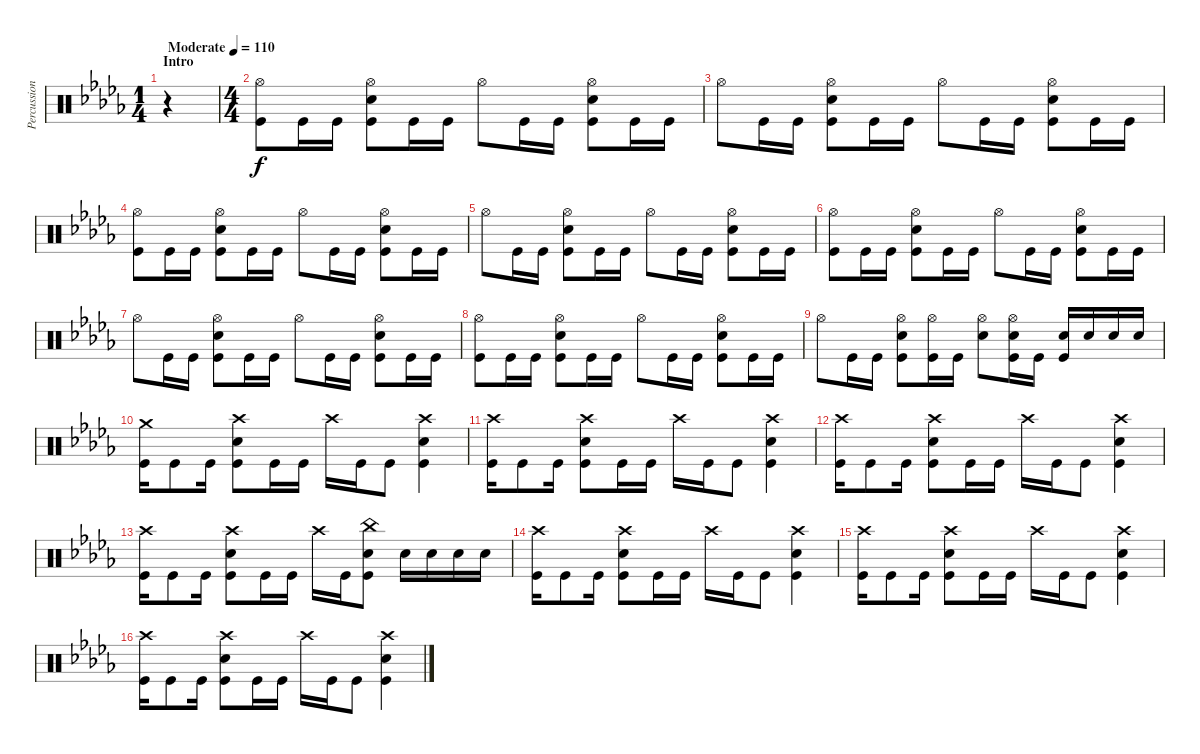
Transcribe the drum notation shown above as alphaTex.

\track ("Percussion" "Percussion") {instrument percussion}
\staff {score}
\articulation defaults
\ts (1 4)
\section ("" "Intro")
\tempo (110 "Moderate")
\clef neutral
\ks db
r.4{dy f volume 0} |
\ts (4 4)
("Hi-Hat (open)" "Kick (hit)").8{volume 7} "Kick (hit)".16 "Kick (hit)".16 ("Hi-Hat (open)" "Electric Snare (hit)" "Kick (hit)").8 "Kick (hit)".16 "Kick (hit)".16 "Hi-Hat (open)".8 "Kick (hit)".16 "Kick (hit)".16 ("Hi-Hat (open)" "Electric Snare (hit)" "Kick (hit)").8 "Kick (hit)".16 "Kick (hit)".16 |
"Hi-Hat (open)".8 "Kick (hit)".16 "Kick (hit)".16 ("Hi-Hat (open)" "Electric Snare (hit)" "Kick (hit)").8 "Kick (hit)".16 "Kick (hit)".16 "Hi-Hat (open)".8 "Kick (hit)".16 "Kick (hit)".16 ("Hi-Hat (open)" "Electric Snare (hit)" "Kick (hit)").8 "Kick (hit)".16 "Kick (hit)".16 |
("Hi-Hat (open)" "Kick (hit)").8 "Kick (hit)".16 "Kick (hit)".16 ("Hi-Hat (open)" "Electric Snare (hit)" "Kick (hit)").8 "Kick (hit)".16 "Kick (hit)".16 "Hi-Hat (open)".8 "Kick (hit)".16 "Kick (hit)".16 ("Hi-Hat (open)" "Electric Snare (hit)" "Kick (hit)").8 "Kick (hit)".16 "Kick (hit)".16 |
"Hi-Hat (open)".8 "Kick (hit)".16 "Kick (hit)".16 ("Hi-Hat (open)" "Electric Snare (hit)" "Kick (hit)").8 "Kick (hit)".16 "Kick (hit)".16 "Hi-Hat (open)".8 "Kick (hit)".16 "Kick (hit)".16 ("Hi-Hat (open)" "Electric Snare (hit)" "Kick (hit)").8 "Kick (hit)".16 "Kick (hit)".16 |
("Hi-Hat (open)" "Kick (hit)").8{volume 13} "Kick (hit)".16 "Kick (hit)".16 ("Hi-Hat (open)" "Electric Snare (hit)" "Kick (hit)").8 "Kick (hit)".16 "Kick (hit)".16 "Hi-Hat (open)".8 "Kick (hit)".16 "Kick (hit)".16 ("Hi-Hat (open)" "Electric Snare (hit)" "Kick (hit)").8 "Kick (hit)".16 "Kick (hit)".16 |
"Hi-Hat (open)".8 "Kick (hit)".16 "Kick (hit)".16 ("Hi-Hat (open)" "Electric Snare (hit)" "Kick (hit)").8 "Kick (hit)".16 "Kick (hit)".16 "Hi-Hat (open)".8 "Kick (hit)".16 "Kick (hit)".16 ("Hi-Hat (open)" "Electric Snare (hit)" "Kick (hit)").8 "Kick (hit)".16 "Kick (hit)".16 |
("Hi-Hat (open)" "Kick (hit)").8 "Kick (hit)".16 "Kick (hit)".16 ("Hi-Hat (open)" "Electric Snare (hit)" "Kick (hit)").8 "Kick (hit)".16 "Kick (hit)".16 "Hi-Hat (open)".8 "Kick (hit)".16 "Kick (hit)".16 ("Hi-Hat (open)" "Electric Snare (hit)" "Kick (hit)").8 "Kick (hit)".16 "Kick (hit)".16 |
"Hi-Hat (open)".8 "Kick (hit)".16 "Kick (hit)".16 ("Hi-Hat (open)" "Electric Snare (hit)" "Kick (hit)").8 ("Hi-Hat (open)" "Kick (hit)").16 "Kick (hit)".16 ("Hi-Hat (open)" "Electric Snare (hit)").8 ("Hi-Hat (open)" "Electric Snare (hit)" "Kick (hit)").16 "Kick (hit)".16 ("Electric Snare (hit)" "Kick (hit)").16 "Electric Snare (hit)".16 "Electric Snare (hit)".16 "Electric Snare (hit)".16 |
("Crash medium (hit)" "Kick (hit)").16 "Kick (hit)".8 "Kick (hit)".16 ("Crash high (hit)" "Electric Snare (hit)" "Kick (hit)").8 "Kick (hit)".16 "Kick (hit)".16 "Crash high (hit)".16 "Kick (hit)".16 "Kick (hit)".8 ("Crash high (hit)" "Electric Snare (hit)" "Kick (hit)").4 |
("Crash high (hit)" "Kick (hit)").16 "Kick (hit)".8 "Kick (hit)".16 ("Crash high (hit)" "Electric Snare (hit)" "Kick (hit)").8 "Kick (hit)".16 "Kick (hit)".16 "Crash high (hit)".16 "Kick (hit)".16 "Kick (hit)".8 ("Crash high (hit)" "Electric Snare (hit)" "Kick (hit)").4 |
("Crash high (hit)" "Kick (hit)").16 "Kick (hit)".8 "Kick (hit)".16 ("Crash high (hit)" "Electric Snare (hit)" "Kick (hit)").8 "Kick (hit)".16 "Kick (hit)".16 "Crash high (hit)".16 "Kick (hit)".16 "Kick (hit)".8 ("Crash high (hit)" "Electric Snare (hit)" "Kick (hit)").4 |
("Crash high (hit)" "Kick (hit)").16 "Kick (hit)".8 "Kick (hit)".16 ("Crash high (hit)" "Electric Snare (hit)" "Kick (hit)").8 "Kick (hit)".16 "Kick (hit)".16 "Crash high (hit)".16 "Kick (hit)".16 ("China (hit)" "Electric Snare (hit)" "Kick (hit)").8 "Electric Snare (hit)".16 "Electric Snare (hit)".16 "Electric Snare (hit)".16 "Electric Snare (hit)".16 |
("Crash high (hit)" "Kick (hit)").16 "Kick (hit)".8 "Kick (hit)".16 ("Crash high (hit)" "Electric Snare (hit)" "Kick (hit)").8 "Kick (hit)".16 "Kick (hit)".16 "Crash high (hit)".16 "Kick (hit)".16 "Kick (hit)".8 ("Crash high (hit)" "Electric Snare (hit)" "Kick (hit)").4 |
("Crash high (hit)" "Kick (hit)").16 "Kick (hit)".8 "Kick (hit)".16 ("Crash high (hit)" "Electric Snare (hit)" "Kick (hit)").8 "Kick (hit)".16 "Kick (hit)".16 "Crash high (hit)".16 "Kick (hit)".16 "Kick (hit)".8 ("Crash high (hit)" "Electric Snare (hit)" "Kick (hit)").4 |
("Crash high (hit)" "Kick (hit)").16 "Kick (hit)".8 "Kick (hit)".16 ("Crash high (hit)" "Electric Snare (hit)" "Kick (hit)").8 "Kick (hit)".16 "Kick (hit)".16 "Crash high (hit)".16 "Kick (hit)".16 "Kick (hit)".8 ("Crash high (hit)" "Electric Snare (hit)" "Kick (hit)").4
